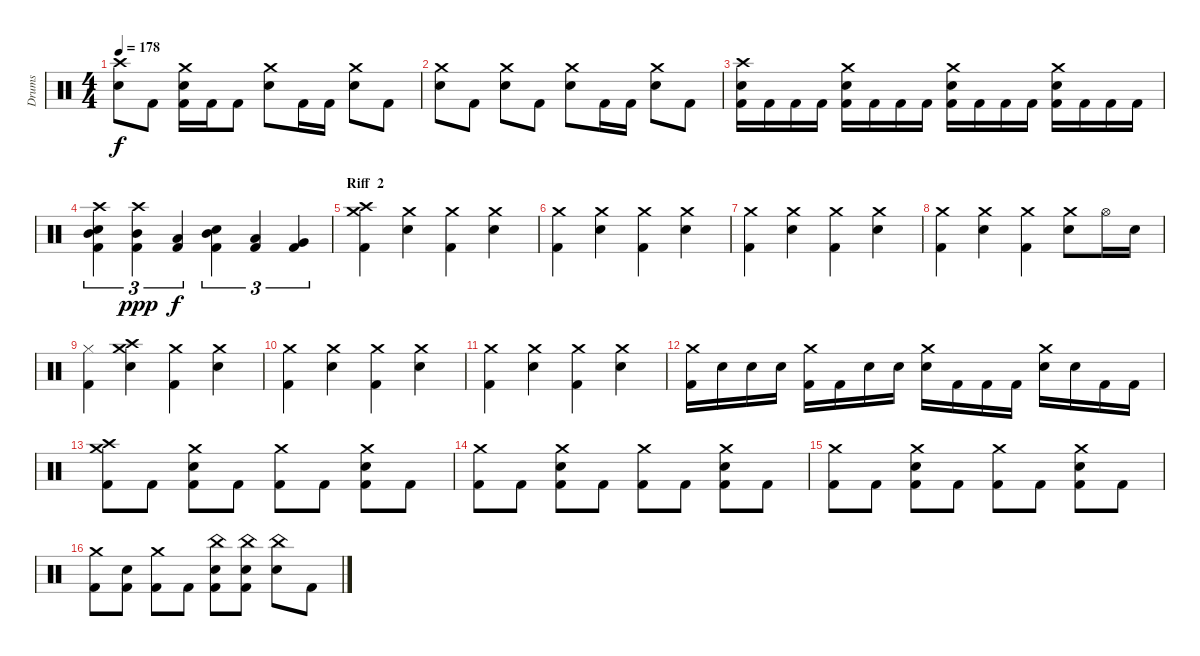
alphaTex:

\track ("Drums" "Drums") {instrument percussion}
\staff {score}
\articulation defaults
\ts (4 4)
\tempo 178
\clef neutral
\ks c
("Crash high (hit)" "Electric Snare (hit)").8{dy f} "Kick (hit) 2".8 ("Crash medium (hit)" "Electric Snare (hit)" "Kick (hit) 2").16 "Kick (hit) 2".16 "Kick (hit) 2".8 ("Crash medium (hit)" "Electric Snare (hit)").8 "Kick (hit) 2".16 "Kick (hit) 2".16 ("Crash medium (hit)" "Electric Snare (hit)").8 "Kick (hit) 2".8 |
("Crash medium (hit)" "Electric Snare (hit)").8 "Kick (hit) 2".8 ("Crash medium (hit)" "Electric Snare (hit)").8 "Kick (hit) 2".8 ("Crash medium (hit)" "Electric Snare (hit)").8 "Kick (hit) 2".16 "Kick (hit) 2".16 ("Crash medium (hit)" "Electric Snare (hit)").8 "Kick (hit) 2".8 |
("Crash high (hit)" "Electric Snare (hit)" "Kick (hit) 2").16 "Kick (hit) 2".16 "Kick (hit) 2".16 "Kick (hit) 2".16 ("Crash medium (hit)" "Electric Snare (hit)" "Kick (hit) 2").16 "Kick (hit) 2".16 "Kick (hit) 2".16 "Kick (hit) 2".16 ("Crash medium (hit)" "Electric Snare (hit)" "Kick (hit) 2").16 "Kick (hit) 2".16 "Kick (hit) 2".16 "Kick (hit) 2".16 ("Crash medium (hit)" "Electric Snare (hit)" "Kick (hit) 2").16 "Kick (hit) 2".16 "Kick (hit) 2".16 "Kick (hit) 2".16 |
("Crash high (hit)" "Mid Tom (hit)" "Electric Snare (hit)" "Kick (hit) 2").4{tu (3 2)} ("Crash high (hit)" "Mid Tom (hit)" "Kick (hit) 2").4{tu (3 2) dy ppp} ("Low Tom (hit)" "Kick (hit) 2").4{tu (3 2) dy f} ("Mid Tom (hit)" "Electric Snare (hit)" "Kick (hit) 2").4{tu (3 2)} ("Low Tom (hit)" "Kick (hit) 2").4{tu (3 2)} ("Very Low Tom (hit)" "Kick (hit) 2").4{tu (3 2)} |
\section ("" "Riff  2")
("Crash high (hit)" "Crash medium (hit)" "Kick (hit) 2").4 ("Crash medium (hit)" "Electric Snare (hit)").4 ("Crash medium (hit)" "Kick (hit) 2").4 ("Crash medium (hit)" "Electric Snare (hit)").4 |
("Crash medium (hit)" "Kick (hit) 2").4 ("Crash medium (hit)" "Electric Snare (hit)").4 ("Crash medium (hit)" "Kick (hit) 2").4 ("Crash medium (hit)" "Electric Snare (hit)").4 |
("Crash medium (hit)" "Kick (hit) 2").4 ("Crash medium (hit)" "Electric Snare (hit)").4 ("Crash medium (hit)" "Kick (hit) 2").4 ("Crash medium (hit)" "Electric Snare (hit)").4 |
("Crash medium (hit)" "Kick (hit) 2").4 ("Crash medium (hit)" "Electric Snare (hit)").4 ("Crash medium (hit)" "Kick (hit) 2").4 ("Crash medium (hit)" "Electric Snare (hit)").8 "Hi-Hat (open)".16 "Electric Snare (hit)".16 |
("Hi-Hat (closed)" "Kick (hit) 2").4 ("Crash high (hit)" "Crash medium (hit)" "Electric Snare (hit)").4 ("Crash medium (hit)" "Kick (hit) 2").4 ("Crash medium (hit)" "Electric Snare (hit)").4 |
("Crash medium (hit)" "Kick (hit) 2").4 ("Crash medium (hit)" "Electric Snare (hit)").4 ("Crash medium (hit)" "Kick (hit) 2").4 ("Crash medium (hit)" "Electric Snare (hit)").4 |
("Crash medium (hit)" "Kick (hit) 2").4 ("Crash medium (hit)" "Electric Snare (hit)").4 ("Crash medium (hit)" "Kick (hit) 2").4 ("Crash medium (hit)" "Electric Snare (hit)").4 |
("Crash medium (hit)" "Kick (hit) 2").16 "Electric Snare (hit)".16 "Electric Snare (hit)".16 "Electric Snare (hit)".16 ("Crash medium (hit)" "Kick (hit) 2").16 "Kick (hit) 2".16 "Electric Snare (hit)".16 "Electric Snare (hit)".16 ("Crash medium (hit)" "Electric Snare (hit)").16 "Kick (hit) 2".16 "Kick (hit) 2".16 "Kick (hit) 2".16 ("Crash medium (hit)" "Electric Snare (hit)").16 "Electric Snare (hit)".16 "Kick (hit) 2".16 "Kick (hit) 2".16 |
("Crash high (hit)" "Crash medium (hit)" "Kick (hit) 2").8 "Kick (hit) 2".8 ("Crash medium (hit)" "Electric Snare (hit)" "Kick (hit) 2").8 "Kick (hit) 2".8 ("Crash medium (hit)" "Kick (hit) 2").8 "Kick (hit) 2".8 ("Crash medium (hit)" "Electric Snare (hit)" "Kick (hit) 2").8 "Kick (hit) 2".8 |
("Crash medium (hit)" "Kick (hit) 2").8 "Kick (hit) 2".8 ("Crash medium (hit)" "Electric Snare (hit)" "Kick (hit) 2").8 "Kick (hit) 2".8 ("Crash medium (hit)" "Kick (hit) 2").8 "Kick (hit) 2".8 ("Crash medium (hit)" "Electric Snare (hit)" "Kick (hit) 2").8 "Kick (hit) 2".8 |
("Crash medium (hit)" "Kick (hit) 2").8 "Kick (hit) 2".8 ("Crash medium (hit)" "Electric Snare (hit)" "Kick (hit) 2").8 "Kick (hit) 2".8 ("Crash medium (hit)" "Kick (hit) 2").8 "Kick (hit) 2".8 ("Crash medium (hit)" "Electric Snare (hit)" "Kick (hit) 2").8 "Kick (hit) 2".8 |
("Crash medium (hit)" "Kick (hit) 2").8 ("Electric Snare (hit)" "Kick (hit) 2").8 ("Crash medium (hit)" "Kick (hit) 2").8 "Kick (hit) 2".8 ("China (hit)" "Electric Snare (hit)" "Kick (hit) 2").8 ("China (hit)" "Electric Snare (hit)" "Kick (hit) 2").8 ("China (hit)" "Electric Snare (hit)").8 "Kick (hit) 2".8
